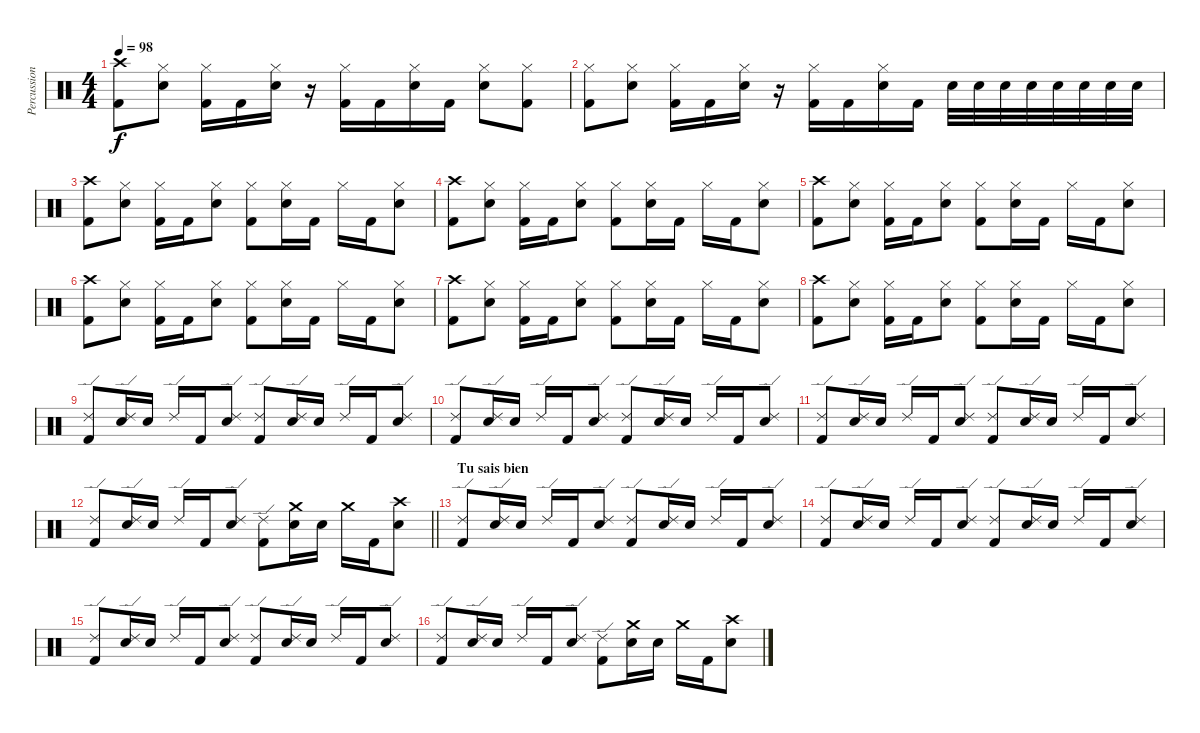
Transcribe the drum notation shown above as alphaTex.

\track ("Percussions" "Percussion") {instrument percussion}
\staff
\articulation defaults
\ts (4 4)
\tempo 98
\clef neutral
\ks c
("Crash high (hit)" "Kick (hit) 2").8{dy f} ("Hi-Hat (closed)" "Electric Snare (hit)").8 ("Hi-Hat (closed)" "Kick (hit) 2").16 "Kick (hit) 2".16 ("Hi-Hat (closed)" "Electric Snare (hit)").16 r.16 ("Hi-Hat (closed)" "Kick (hit) 2").16 "Kick (hit) 2".16 ("Hi-Hat (closed)" "Electric Snare (hit)").16 "Kick (hit) 2".16 ("Hi-Hat (closed)" "Electric Snare (hit)").8 ("Hi-Hat (closed)" "Kick (hit) 2").8 |
("Hi-Hat (closed)" "Kick (hit) 2").8 ("Hi-Hat (closed)" "Electric Snare (hit)").8 ("Hi-Hat (closed)" "Kick (hit) 2").16 "Kick (hit) 2".16 ("Hi-Hat (closed)" "Electric Snare (hit)").16 r.16 ("Hi-Hat (closed)" "Kick (hit) 2").16 "Kick (hit) 2".16 ("Hi-Hat (closed)" "Electric Snare (hit)").16 "Kick (hit) 2".16 "Electric Snare (hit)".32 "Electric Snare (hit)".32 "Electric Snare (hit)".32 "Electric Snare (hit)".32 "Electric Snare (hit)".32 "Electric Snare (hit)".32 "Electric Snare (hit)".32 "Electric Snare (hit)".32 |
("Crash high (hit)" "Kick (hit) 2").8 ("Hi-Hat (closed)" "Electric Snare (hit)").8 ("Hi-Hat (closed)" "Kick (hit) 2").16 "Kick (hit) 2".16 ("Hi-Hat (closed)" "Electric Snare (hit)").8 ("Hi-Hat (closed)" "Kick (hit) 2").8 ("Hi-Hat (closed)" "Electric Snare (hit)").16 "Kick (hit) 2".16 "Hi-Hat (closed)".16 "Kick (hit) 2".16 ("Hi-Hat (closed)" "Electric Snare (hit)").8 |
("Crash high (hit)" "Kick (hit) 2").8 ("Hi-Hat (closed)" "Electric Snare (hit)").8 ("Hi-Hat (closed)" "Kick (hit) 2").16 "Kick (hit) 2".16 ("Hi-Hat (closed)" "Electric Snare (hit)").8 ("Hi-Hat (closed)" "Kick (hit) 2").8 ("Hi-Hat (closed)" "Electric Snare (hit)").16 "Kick (hit) 2".16 "Hi-Hat (closed)".16 "Kick (hit) 2".16 ("Hi-Hat (closed)" "Electric Snare (hit)").8 |
("Crash high (hit)" "Kick (hit) 2").8 ("Hi-Hat (closed)" "Electric Snare (hit)").8 ("Hi-Hat (closed)" "Kick (hit) 2").16 "Kick (hit) 2".16 ("Hi-Hat (closed)" "Electric Snare (hit)").8 ("Hi-Hat (closed)" "Kick (hit) 2").8 ("Hi-Hat (closed)" "Electric Snare (hit)").16 "Kick (hit) 2".16 "Hi-Hat (closed)".16 "Kick (hit) 2".16 ("Hi-Hat (closed)" "Electric Snare (hit)").8 |
("Crash high (hit)" "Kick (hit) 2").8 ("Hi-Hat (closed)" "Electric Snare (hit)").8 ("Hi-Hat (closed)" "Kick (hit) 2").16 "Kick (hit) 2".16 ("Hi-Hat (closed)" "Electric Snare (hit)").8 ("Hi-Hat (closed)" "Kick (hit) 2").8 ("Hi-Hat (closed)" "Electric Snare (hit)").16 "Kick (hit) 2".16 "Hi-Hat (closed)".16 "Kick (hit) 2".16 ("Hi-Hat (closed)" "Electric Snare (hit)").8 |
("Crash high (hit)" "Kick (hit) 2").8 ("Hi-Hat (closed)" "Electric Snare (hit)").8 ("Hi-Hat (closed)" "Kick (hit) 2").16 "Kick (hit) 2".16 ("Hi-Hat (closed)" "Electric Snare (hit)").8 ("Hi-Hat (closed)" "Kick (hit) 2").8 ("Hi-Hat (closed)" "Electric Snare (hit)").16 "Kick (hit) 2".16 "Hi-Hat (closed)".16 "Kick (hit) 2".16 ("Hi-Hat (closed)" "Electric Snare (hit)").8 |
("Crash high (hit)" "Kick (hit) 2").8 ("Hi-Hat (closed)" "Electric Snare (hit)").8 ("Hi-Hat (closed)" "Kick (hit) 2").16 "Kick (hit) 2".16 ("Hi-Hat (closed)" "Electric Snare (hit)").8 ("Hi-Hat (closed)" "Kick (hit) 2").8 ("Hi-Hat (closed)" "Electric Snare (hit)").16 "Kick (hit) 2".16 "Hi-Hat (closed)".16 "Kick (hit) 2".16 ("Hi-Hat (closed)" "Electric Snare (hit)").8 |
("Ride (edge) 2" "Kick (hit) 2").8 ("Ride (edge) 2" "Electric Snare (hit)").16 "Electric Snare (hit)".16 "Ride (edge) 2".16 "Kick (hit) 2".16 ("Ride (edge) 2" "Electric Snare (hit)").8 ("Ride (edge) 2" "Kick (hit) 2").8 ("Ride (edge) 2" "Electric Snare (hit)").16 "Electric Snare (hit)".16 "Ride (edge) 2".16 "Kick (hit) 2".16 ("Ride (edge) 2" "Electric Snare (hit)").8 |
("Ride (edge) 2" "Kick (hit) 2").8 ("Ride (edge) 2" "Electric Snare (hit)").16 "Electric Snare (hit)".16 "Ride (edge) 2".16 "Kick (hit) 2".16 ("Ride (edge) 2" "Electric Snare (hit)").8 ("Ride (edge) 2" "Kick (hit) 2").8 ("Ride (edge) 2" "Electric Snare (hit)").16 "Electric Snare (hit)".16 "Ride (edge) 2".16 "Kick (hit) 2".16 ("Ride (edge) 2" "Electric Snare (hit)").8 |
("Ride (edge) 2" "Kick (hit) 2").8 ("Ride (edge) 2" "Electric Snare (hit)").16 "Electric Snare (hit)".16 "Ride (edge) 2".16 "Kick (hit) 2".16 ("Ride (edge) 2" "Electric Snare (hit)").8 ("Ride (edge) 2" "Kick (hit) 2").8 ("Ride (edge) 2" "Electric Snare (hit)").16 "Electric Snare (hit)".16 "Ride (edge) 2".16 "Kick (hit) 2".16 ("Ride (edge) 2" "Electric Snare (hit)").8 |
\barLineRight lightlight
("Ride (edge) 2" "Kick (hit) 2").8 ("Ride (edge) 2" "Electric Snare (hit)").16 "Electric Snare (hit)".16 "Ride (edge) 2".16 "Kick (hit) 2".16 ("Ride (edge) 2" "Electric Snare (hit)").8 ("Ride (edge) 2" "Kick (hit) 2").8 ("Crash medium (hit)" "Electric Snare (hit)").16 "Electric Snare (hit)".16 "Crash medium (hit)".16 "Kick (hit) 2".16 ("Crash high (hit)" "Electric Snare (hit)").8 |
\section ("" "Tu sais bien")
("Ride (edge) 2" "Kick (hit) 2").8 ("Ride (edge) 2" "Electric Snare (hit)").16 "Electric Snare (hit)".16 "Ride (edge) 2".16 "Kick (hit) 2".16 ("Ride (edge) 2" "Electric Snare (hit)").8 ("Ride (edge) 2" "Kick (hit) 2").8 ("Ride (edge) 2" "Electric Snare (hit)").16 "Electric Snare (hit)".16 "Ride (edge) 2".16 "Kick (hit) 2".16 ("Ride (edge) 2" "Electric Snare (hit)").8 |
("Ride (edge) 2" "Kick (hit) 2").8 ("Ride (edge) 2" "Electric Snare (hit)").16 "Electric Snare (hit)".16 "Ride (edge) 2".16 "Kick (hit) 2".16 ("Ride (edge) 2" "Electric Snare (hit)").8 ("Ride (edge) 2" "Kick (hit) 2").8 ("Ride (edge) 2" "Electric Snare (hit)").16 "Electric Snare (hit)".16 "Ride (edge) 2".16 "Kick (hit) 2".16 ("Ride (edge) 2" "Electric Snare (hit)").8 |
("Ride (edge) 2" "Kick (hit) 2").8 ("Ride (edge) 2" "Electric Snare (hit)").16 "Electric Snare (hit)".16 "Ride (edge) 2".16 "Kick (hit) 2".16 ("Ride (edge) 2" "Electric Snare (hit)").8 ("Ride (edge) 2" "Kick (hit) 2").8 ("Ride (edge) 2" "Electric Snare (hit)").16 "Electric Snare (hit)".16 "Ride (edge) 2".16 "Kick (hit) 2".16 ("Ride (edge) 2" "Electric Snare (hit)").8 |
("Ride (edge) 2" "Kick (hit) 2").8 ("Ride (edge) 2" "Electric Snare (hit)").16 "Electric Snare (hit)".16 "Ride (edge) 2".16 "Kick (hit) 2".16 ("Ride (edge) 2" "Electric Snare (hit)").8 ("Ride (edge) 2" "Kick (hit) 2").8 ("Crash medium (hit)" "Electric Snare (hit)").16 "Electric Snare (hit)".16 "Crash medium (hit)".16 "Kick (hit) 2".16 ("Crash high (hit)" "Electric Snare (hit)").8
